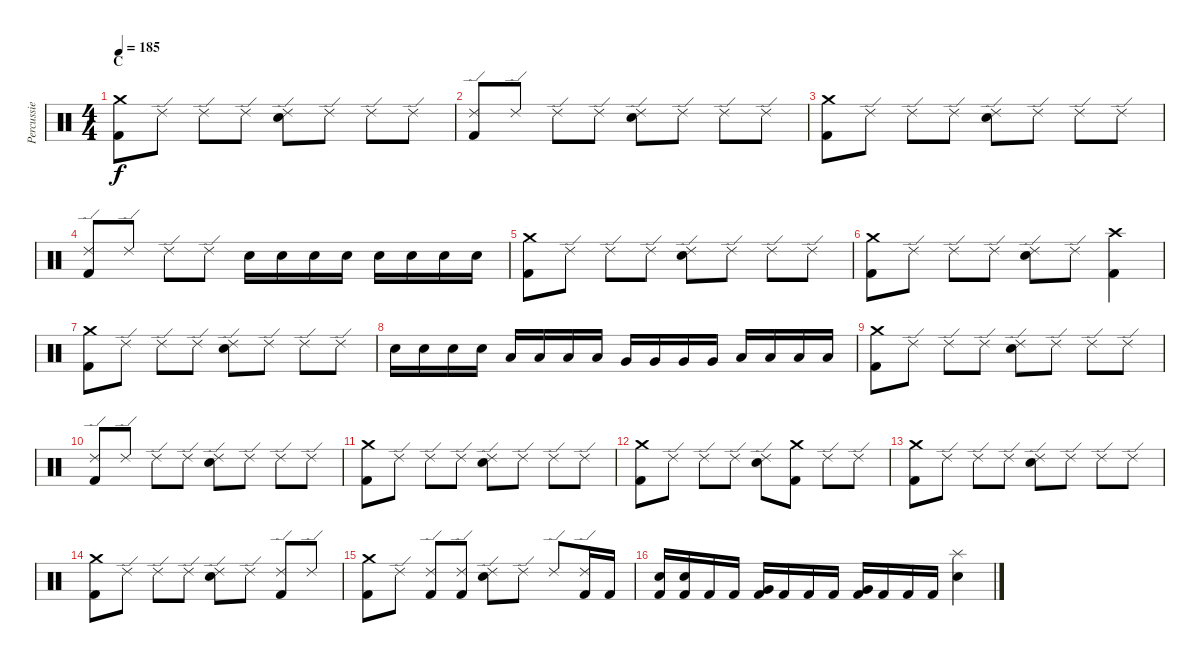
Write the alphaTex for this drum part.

\track ("Percussie" "Percussie") {instrument percussion}
\staff {score}
\articulation defaults
\ts (4 4)
\section ("" "C")
\tempo 185
\clef neutral
\ks c
("Crash medium (hit)" "Kick (hit) 2").8{dy f} "Ride (edge) 2".8 "Ride (edge) 2".8 "Ride (edge) 2".8 ("Ride (edge) 2" "Electric Snare (hit)").8 "Ride (edge) 2".8 "Ride (edge) 2".8 "Ride (edge) 2".8 |
("Ride (edge) 2" "Kick (hit) 2").8 "Ride (edge) 2".8 "Ride (edge) 2".8 "Ride (edge) 2".8 ("Ride (edge) 2" "Electric Snare (hit)").8 "Ride (edge) 2".8 "Ride (edge) 2".8 "Ride (edge) 2".8 |
("Crash medium (hit)" "Kick (hit) 2").8 "Ride (edge) 2".8 "Ride (edge) 2".8 "Ride (edge) 2".8 ("Ride (edge) 2" "Electric Snare (hit)").8 "Ride (edge) 2".8 "Ride (edge) 2".8 "Ride (edge) 2".8 |
("Ride (edge) 2" "Kick (hit) 2").8 "Ride (edge) 2".8 "Ride (edge) 2".8 "Ride (edge) 2".8 "Electric Snare (hit)".16 "Electric Snare (hit)".16 "Electric Snare (hit)".16 "Electric Snare (hit)".16 "Electric Snare (hit)".16 "Electric Snare (hit)".16 "Electric Snare (hit)".16 "Electric Snare (hit)".16 |
("Crash medium (hit)" "Kick (hit) 2").8 "Ride (edge) 2".8 "Ride (edge) 2".8 "Ride (edge) 2".8 ("Ride (edge) 2" "Electric Snare (hit)").8 "Ride (edge) 2".8 "Ride (edge) 2".8 "Ride (edge) 2".8 |
("Crash medium (hit)" "Kick (hit) 2").8 "Ride (edge) 2".8 "Ride (edge) 2".8 "Ride (edge) 2".8 ("Ride (edge) 2" "Electric Snare (hit)").8 "Ride (edge) 2".8 ("Crash high (hit)" "Kick (hit) 2").4 |
("Crash medium (hit)" "Kick (hit) 2").8 "Ride (edge) 2".8 "Ride (edge) 2".8 "Ride (edge) 2".8 ("Ride (edge) 2" "Electric Snare (hit)").8 "Ride (edge) 2".8 "Ride (edge) 2".8 "Ride (edge) 2".8 |
"Electric Snare (hit)".16 "Electric Snare (hit)".16 "Electric Snare (hit)".16 "Electric Snare (hit)".16 "Low Tom (hit)".16 "Low Tom (hit)".16 "Low Tom (hit)".16 "Low Tom (hit)".16 "Very Low Tom (hit)".16 "Very Low Tom (hit)".16 "Very Low Tom (hit)".16 "Very Low Tom (hit)".16 "Low Floor Tom (hit)".16 "Low Floor Tom (hit)".16 "Low Floor Tom (hit)".16 "Low Floor Tom (hit)".16 |
("Crash medium (hit)" "Kick (hit) 2").8 "Ride (edge) 2".8 "Ride (edge) 2".8 "Ride (edge) 2".8 ("Ride (edge) 2" "Electric Snare (hit)").8 "Ride (edge) 2".8 "Ride (edge) 2".8 "Ride (edge) 2".8 |
("Ride (edge) 2" "Kick (hit) 2").8 "Ride (edge) 2".8 "Ride (edge) 2".8 "Ride (edge) 2".8 ("Ride (edge) 2" "Electric Snare (hit)").8 "Ride (edge) 2".8 "Ride (edge) 2".8 "Ride (edge) 2".8 |
("Crash medium (hit)" "Kick (hit) 2").8 "Ride (edge) 2".8 "Ride (edge) 2".8 "Ride (edge) 2".8 ("Ride (edge) 2" "Electric Snare (hit)").8 "Ride (edge) 2".8 "Ride (edge) 2".8 "Ride (edge) 2".8 |
("Crash medium (hit)" "Kick (hit) 2").8 "Ride (edge) 2".8 "Ride (edge) 2".8 "Ride (edge) 2".8 ("Ride (edge) 2" "Electric Snare (hit)").8 ("Crash medium (hit)" "Kick (hit) 2").8 "Ride (edge) 2".8 "Ride (edge) 2".8 |
("Crash medium (hit)" "Kick (hit) 2").8 "Ride (edge) 2".8 "Ride (edge) 2".8 "Ride (edge) 2".8 ("Ride (edge) 2" "Electric Snare (hit)").8 "Ride (edge) 2".8 "Ride (edge) 2".8 "Ride (edge) 2".8 |
("Crash medium (hit)" "Kick (hit) 2").8 "Ride (edge) 2".8 "Ride (edge) 2".8 "Ride (edge) 2".8 ("Ride (edge) 2" "Electric Snare (hit)").8 "Ride (edge) 2".8 ("Ride (edge) 2" "Kick (hit) 2").8 "Ride (edge) 2".8 |
("Crash medium (hit)" "Kick (hit) 2").8 "Ride (edge) 2".8 ("Ride (edge) 2" "Kick (hit) 2").8 ("Ride (edge) 2" "Kick (hit) 2").8 ("Ride (edge) 2" "Electric Snare (hit)").8 "Ride (edge) 2".8 "Ride (edge) 2".8 ("Ride (edge) 2" "Kick (hit) 2").16 "Kick (hit) 2".16 |
("Electric Snare (hit)" "Kick (hit) 2").16 ("Electric Snare (hit)" "Kick (hit) 2").16 "Kick (hit) 2".16 "Kick (hit) 2".16 ("Very Low Tom (hit)" "Kick (hit) 2").16 "Kick (hit) 2".16 "Kick (hit) 2".16 "Kick (hit) 2".16 ("Very Low Tom (hit)" "Kick (hit) 2").16 "Kick (hit) 2".16 "Kick (hit) 2".16 "Kick (hit) 2".16 ("Splash (hit)" "Electric Snare (hit)").4
